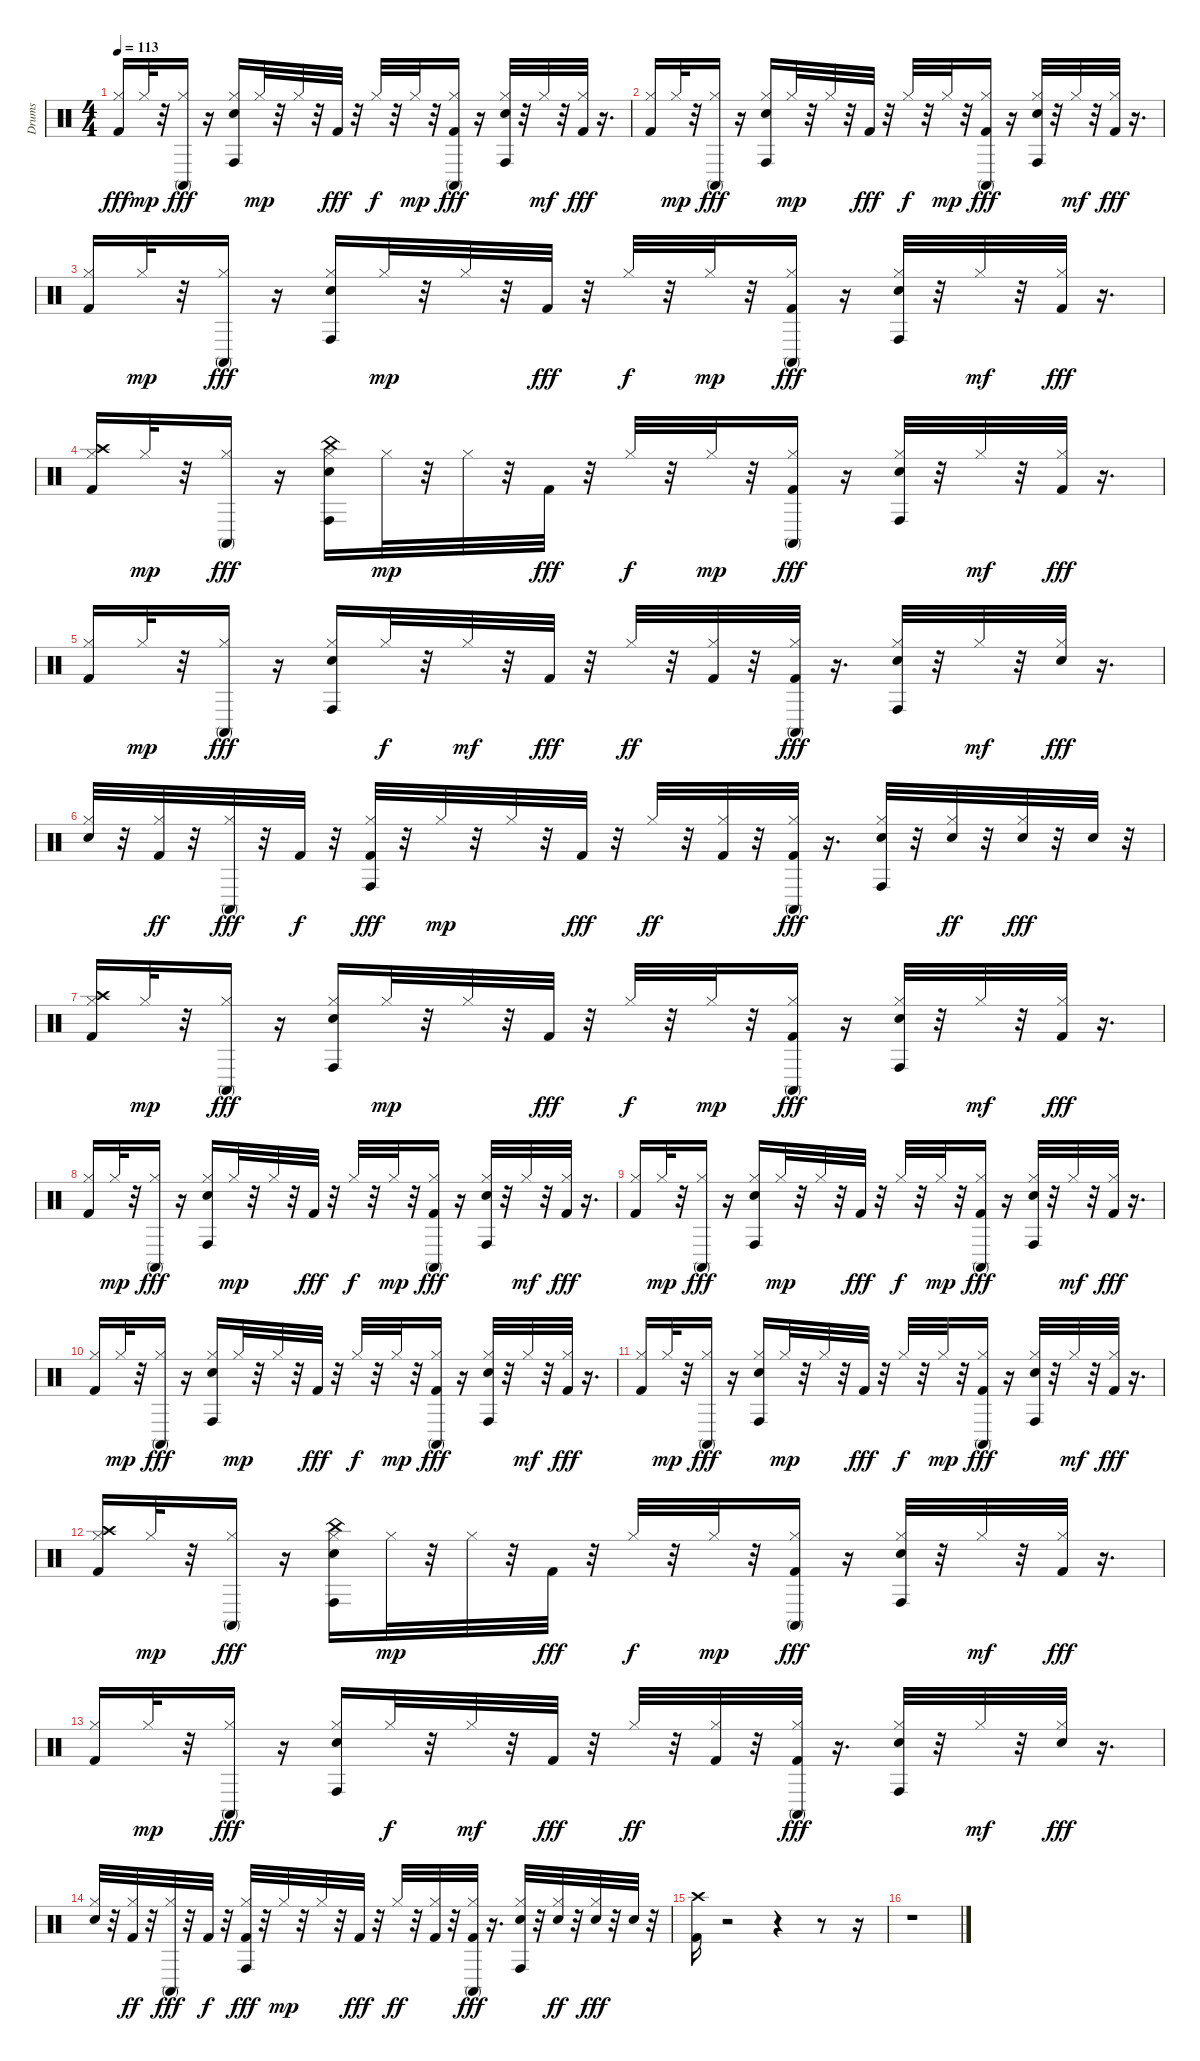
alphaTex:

\track ("Drums   " "Drums   ") {instrument percussion}
\staff {score}
\articulation defaults
\ts (4 4)
\tempo 113
\clef neutral
\ks c
("Hi-Hat (closed)" "Kick (hit) 2").16{dy fff} "Hi-Hat (closed)".32{dy mp} r.32 ("Hi-Hat (closed)" "Conga high (mute)").16{dy fff} r.16 ("Hi-Hat (closed)" "Electric Snare (hit)" "Conga high (hit)").16 "Hi-Hat (closed)".32{dy mp} r.32 "Hi-Hat (closed)".32 r.32 "Kick (hit) 2".32{dy fff} r.32 "Hi-Hat (closed)".32{dy f} r.32 "Hi-Hat (closed)".32{dy mp} r.32 ("Hi-Hat (closed)" "Kick (hit) 2" "Conga high (mute)").16{dy fff} r.16 ("Hi-Hat (closed)" "Electric Snare (hit)" "Conga high (hit)").32 r.32 "Hi-Hat (closed)".32{dy mf} r.32 ("Hi-Hat (closed)" "Kick (hit) 2").32{dy fff} r.16{d} |
("Hi-Hat (closed)" "Kick (hit) 2").16 "Hi-Hat (closed)".32{dy mp} r.32 ("Hi-Hat (closed)" "Conga high (mute)").16{dy fff} r.16 ("Hi-Hat (closed)" "Electric Snare (hit)" "Conga high (hit)").16 "Hi-Hat (closed)".32{dy mp} r.32 "Hi-Hat (closed)".32 r.32 "Kick (hit) 2".32{dy fff} r.32 "Hi-Hat (closed)".32{dy f} r.32 "Hi-Hat (closed)".32{dy mp} r.32 ("Hi-Hat (closed)" "Kick (hit) 2" "Conga high (mute)").16{dy fff} r.16 ("Hi-Hat (closed)" "Electric Snare (hit)" "Conga high (hit)").32 r.32 "Hi-Hat (closed)".32{dy mf} r.32 ("Hi-Hat (closed)" "Kick (hit) 2").32{dy fff} r.16{d} |
("Hi-Hat (closed)" "Kick (hit) 2").16 "Hi-Hat (closed)".32{dy mp} r.32 ("Hi-Hat (closed)" "Conga high (mute)").16{dy fff} r.16 ("Hi-Hat (closed)" "Electric Snare (hit)" "Conga high (hit)").16 "Hi-Hat (closed)".32{dy mp} r.32 "Hi-Hat (closed)".32 r.32 "Kick (hit) 2".32{dy fff} r.32 "Hi-Hat (closed)".32{dy f} r.32 "Hi-Hat (closed)".32{dy mp} r.32 ("Hi-Hat (closed)" "Kick (hit) 2" "Conga high (mute)").16{dy fff} r.16 ("Hi-Hat (closed)" "Electric Snare (hit)" "Conga high (hit)").32 r.32 "Hi-Hat (closed)".32{dy mf} r.32 ("Hi-Hat (closed)" "Kick (hit) 2").32{dy fff} r.16{d} |
("Hi-Hat (closed)" "Kick (hit) 2" "Crash high (hit)").16 "Hi-Hat (closed)".32{dy mp} r.32 ("Hi-Hat (closed)" "Conga high (mute)").16{dy fff} r.16 ("Hi-Hat (closed)" "Electric Snare (hit)" "China (hit)" "Conga high (hit)").16 "Hi-Hat (closed)".32{dy mp} r.32 "Hi-Hat (closed)".32 r.32 "Kick (hit) 2".32{dy fff} r.32 "Hi-Hat (closed)".32{dy f} r.32 "Hi-Hat (closed)".32{dy mp} r.32 ("Hi-Hat (closed)" "Kick (hit) 2" "Conga high (mute)").16{dy fff} r.16 ("Hi-Hat (closed)" "Electric Snare (hit)" "Conga high (hit)").32 r.32 "Hi-Hat (closed)".32{dy mf} r.32 ("Hi-Hat (closed)" "Kick (hit) 2").32{dy fff} r.16{d} |
("Hi-Hat (closed)" "Kick (hit) 2").16 "Hi-Hat (closed)".32{dy mp} r.32 ("Hi-Hat (closed)" "Conga high (mute)").16{dy fff} r.16 ("Hi-Hat (closed)" "Electric Snare (hit)" "Conga high (hit)").16 "Hi-Hat (closed)".32{dy f} r.32 "Hi-Hat (closed)".32{dy mf} r.32 "Kick (hit) 2".32{dy fff} r.32 "Hi-Hat (closed)".32{dy ff} r.32 ("Hi-Hat (closed)" "Kick (hit) 2").32 r.32 ("Hi-Hat (closed)" "Kick (hit) 2" "Conga high (mute)").32{dy fff} r.16{d} ("Hi-Hat (closed)" "Electric Snare (hit)" "Conga high (hit)").32 r.32 "Hi-Hat (closed)".32{dy mf} r.32 ("Hi-Hat (closed)" "Electric Snare (hit)").32{dy fff} r.16{d} |
("Hi-Hat (closed)" "Electric Snare (hit)").32 r.32 ("Hi-Hat (closed)" "Kick (hit) 2").32{dy ff} r.32 ("Hi-Hat (closed)" "Conga high (mute)").32{dy fff} r.32 "Kick (hit) 2".32{dy f} r.32 ("Hi-Hat (closed)" "Kick (hit) 2" "Conga high (hit)").32{dy fff} r.32 "Hi-Hat (closed)".32{dy mp} r.32 "Hi-Hat (closed)".32 r.32 "Kick (hit) 2".32{dy fff} r.32 "Hi-Hat (closed)".32{dy ff} r.32 ("Hi-Hat (closed)" "Kick (hit) 2").32 r.32 ("Hi-Hat (closed)" "Kick (hit) 2" "Conga high (mute)").32{dy fff} r.16{d} ("Hi-Hat (closed)" "Electric Snare (hit)" "Conga high (hit)").32 r.32 ("Hi-Hat (closed)" "Electric Snare (hit)").32{dy ff} r.32 ("Hi-Hat (closed)" "Electric Snare (hit)").32{dy fff} r.32 "Electric Snare (hit)".32 r.32 |
("Hi-Hat (closed)" "Kick (hit) 2" "Crash high (hit)").16 "Hi-Hat (closed)".32{dy mp} r.32 ("Hi-Hat (closed)" "Conga high (mute)").16{dy fff} r.16 ("Hi-Hat (closed)" "Electric Snare (hit)" "Conga high (hit)").16 "Hi-Hat (closed)".32{dy mp} r.32 "Hi-Hat (closed)".32 r.32 "Kick (hit) 2".32{dy fff} r.32 "Hi-Hat (closed)".32{dy f} r.32 "Hi-Hat (closed)".32{dy mp} r.32 ("Hi-Hat (closed)" "Kick (hit) 2" "Conga high (mute)").16{dy fff} r.16 ("Hi-Hat (closed)" "Electric Snare (hit)" "Conga high (hit)").32 r.32 "Hi-Hat (closed)".32{dy mf} r.32 ("Hi-Hat (closed)" "Kick (hit) 2").32{dy fff} r.16{d} |
("Hi-Hat (closed)" "Kick (hit) 2").16 "Hi-Hat (closed)".32{dy mp} r.32 ("Hi-Hat (closed)" "Conga high (mute)").16{dy fff} r.16 ("Hi-Hat (closed)" "Electric Snare (hit)" "Conga high (hit)").16 "Hi-Hat (closed)".32{dy mp} r.32 "Hi-Hat (closed)".32 r.32 "Kick (hit) 2".32{dy fff} r.32 "Hi-Hat (closed)".32{dy f} r.32 "Hi-Hat (closed)".32{dy mp} r.32 ("Hi-Hat (closed)" "Kick (hit) 2" "Conga high (mute)").16{dy fff} r.16 ("Hi-Hat (closed)" "Electric Snare (hit)" "Conga high (hit)").32 r.32 "Hi-Hat (closed)".32{dy mf} r.32 ("Hi-Hat (closed)" "Kick (hit) 2").32{dy fff} r.16{d} |
("Hi-Hat (closed)" "Kick (hit) 2").16 "Hi-Hat (closed)".32{dy mp} r.32 ("Hi-Hat (closed)" "Conga high (mute)").16{dy fff} r.16 ("Hi-Hat (closed)" "Electric Snare (hit)" "Conga high (hit)").16 "Hi-Hat (closed)".32{dy mp} r.32 "Hi-Hat (closed)".32 r.32 "Kick (hit) 2".32{dy fff} r.32 "Hi-Hat (closed)".32{dy f} r.32 "Hi-Hat (closed)".32{dy mp} r.32 ("Hi-Hat (closed)" "Kick (hit) 2" "Conga high (mute)").16{dy fff} r.16 ("Hi-Hat (closed)" "Electric Snare (hit)" "Conga high (hit)").32 r.32 "Hi-Hat (closed)".32{dy mf} r.32 ("Hi-Hat (closed)" "Kick (hit) 2").32{dy fff} r.16{d} |
("Hi-Hat (closed)" "Kick (hit) 2").16 "Hi-Hat (closed)".32{dy mp} r.32 ("Hi-Hat (closed)" "Conga high (mute)").16{dy fff} r.16 ("Hi-Hat (closed)" "Electric Snare (hit)" "Conga high (hit)").16 "Hi-Hat (closed)".32{dy mp} r.32 "Hi-Hat (closed)".32 r.32 "Kick (hit) 2".32{dy fff} r.32 "Hi-Hat (closed)".32{dy f} r.32 "Hi-Hat (closed)".32{dy mp} r.32 ("Hi-Hat (closed)" "Kick (hit) 2" "Conga high (mute)").16{dy fff} r.16 ("Hi-Hat (closed)" "Electric Snare (hit)" "Conga high (hit)").32 r.32 "Hi-Hat (closed)".32{dy mf} r.32 ("Hi-Hat (closed)" "Kick (hit) 2").32{dy fff} r.16{d} |
("Hi-Hat (closed)" "Kick (hit) 2").16 "Hi-Hat (closed)".32{dy mp} r.32 ("Hi-Hat (closed)" "Conga high (mute)").16{dy fff} r.16 ("Hi-Hat (closed)" "Electric Snare (hit)" "Conga high (hit)").16 "Hi-Hat (closed)".32{dy mp} r.32 "Hi-Hat (closed)".32 r.32 "Kick (hit) 2".32{dy fff} r.32 "Hi-Hat (closed)".32{dy f} r.32 "Hi-Hat (closed)".32{dy mp} r.32 ("Hi-Hat (closed)" "Kick (hit) 2" "Conga high (mute)").16{dy fff} r.16 ("Hi-Hat (closed)" "Electric Snare (hit)" "Conga high (hit)").32 r.32 "Hi-Hat (closed)".32{dy mf} r.32 ("Hi-Hat (closed)" "Kick (hit) 2").32{dy fff} r.16{d} |
("Hi-Hat (closed)" "Kick (hit) 2" "Crash high (hit)").16 "Hi-Hat (closed)".32{dy mp} r.32 ("Hi-Hat (closed)" "Conga high (mute)").16{dy fff} r.16 ("Hi-Hat (closed)" "Electric Snare (hit)" "China (hit)" "Conga high (hit)").16 "Hi-Hat (closed)".32{dy mp} r.32 "Hi-Hat (closed)".32 r.32 "Kick (hit) 2".32{dy fff} r.32 "Hi-Hat (closed)".32{dy f} r.32 "Hi-Hat (closed)".32{dy mp} r.32 ("Hi-Hat (closed)" "Kick (hit) 2" "Conga high (mute)").16{dy fff} r.16 ("Hi-Hat (closed)" "Electric Snare (hit)" "Conga high (hit)").32 r.32 "Hi-Hat (closed)".32{dy mf} r.32 ("Hi-Hat (closed)" "Kick (hit) 2").32{dy fff} r.16{d} |
("Hi-Hat (closed)" "Kick (hit) 2").16 "Hi-Hat (closed)".32{dy mp} r.32 ("Hi-Hat (closed)" "Conga high (mute)").16{dy fff} r.16 ("Hi-Hat (closed)" "Electric Snare (hit)" "Conga high (hit)").16 "Hi-Hat (closed)".32{dy f} r.32 "Hi-Hat (closed)".32{dy mf} r.32 "Kick (hit) 2".32{dy fff} r.32 "Hi-Hat (closed)".32{dy ff} r.32 ("Hi-Hat (closed)" "Kick (hit) 2").32 r.32 ("Hi-Hat (closed)" "Kick (hit) 2" "Conga high (mute)").32{dy fff} r.16{d} ("Hi-Hat (closed)" "Electric Snare (hit)" "Conga high (hit)").32 r.32 "Hi-Hat (closed)".32{dy mf} r.32 ("Hi-Hat (closed)" "Electric Snare (hit)").32{dy fff} r.16{d} |
("Hi-Hat (closed)" "Electric Snare (hit)").32 r.32 ("Hi-Hat (closed)" "Kick (hit) 2").32{dy ff} r.32 ("Hi-Hat (closed)" "Conga high (mute)").32{dy fff} r.32 "Kick (hit) 2".32{dy f} r.32 ("Hi-Hat (closed)" "Kick (hit) 2" "Conga high (hit)").32{dy fff} r.32 "Hi-Hat (closed)".32{dy mp} r.32 "Hi-Hat (closed)".32 r.32 "Kick (hit) 2".32{dy fff} r.32 "Hi-Hat (closed)".32{dy ff} r.32 ("Hi-Hat (closed)" "Kick (hit) 2").32 r.32 ("Hi-Hat (closed)" "Kick (hit) 2" "Conga high (mute)").32{dy fff} r.16{d} ("Hi-Hat (closed)" "Electric Snare (hit)" "Conga high (hit)").32 r.32 ("Hi-Hat (closed)" "Electric Snare (hit)").32{dy ff} r.32 ("Hi-Hat (closed)" "Electric Snare (hit)").32{dy fff} r.32 "Electric Snare (hit)".32 r.32 |
("Kick (hit) 2" "Crash high (hit)").16 r.2 r.4 r.8 r.16 |
r.1
